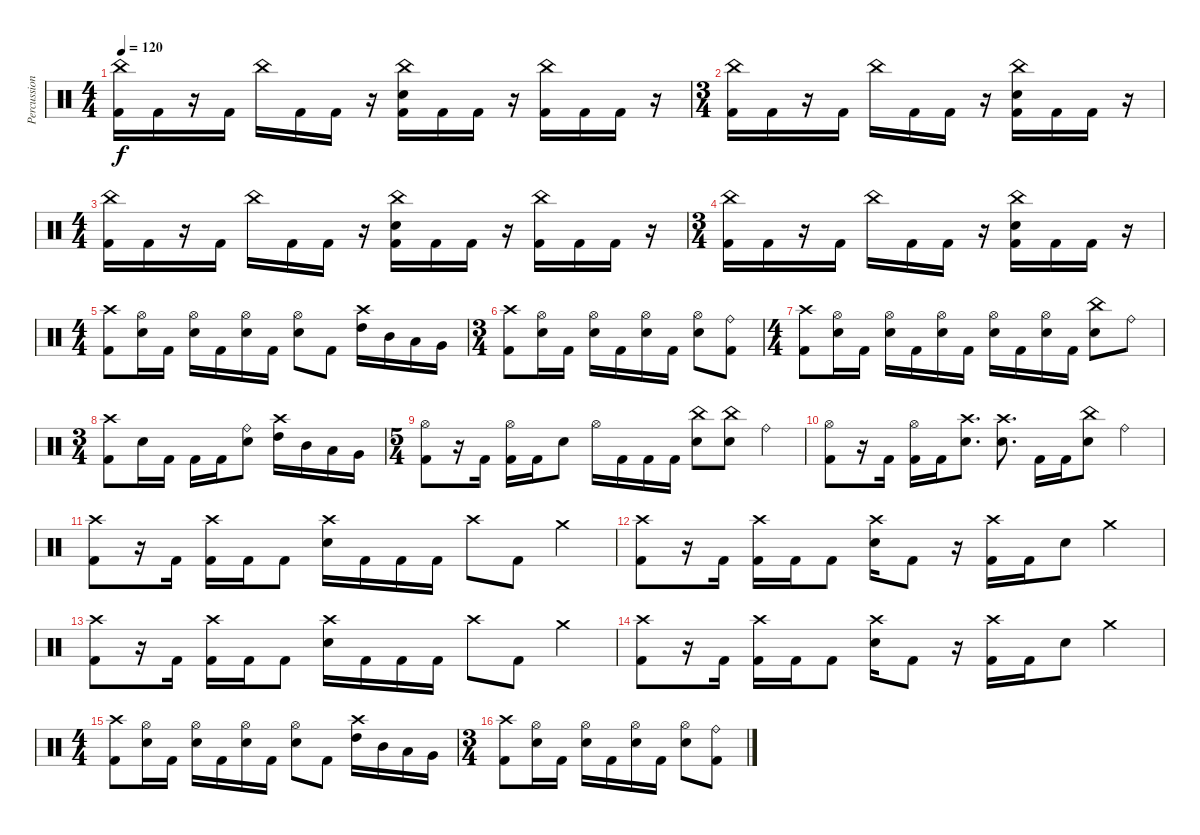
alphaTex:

\track ("Percussion" "Percussion") {instrument percussion}
\staff {score}
\articulation defaults
\ts (4 4)
\tempo 120
\clef neutral
\ks c
("China (hit)" "Kick (hit) 2").16{dy f} "Kick (hit) 2".16 r.16 "Kick (hit) 2".16 "China (hit)".16 "Kick (hit) 2".16 "Kick (hit) 2".16 r.16 ("China (hit)" "Electric Snare (hit)" "Kick (hit) 2").16 "Kick (hit) 2".16 "Kick (hit) 2".16 r.16 ("China (hit)" "Kick (hit) 2").16 "Kick (hit) 2".16 "Kick (hit) 2".16 r.16 |
\ts (3 4)
("China (hit)" "Kick (hit) 2").16 "Kick (hit) 2".16 r.16 "Kick (hit) 2".16 "China (hit)".16 "Kick (hit) 2".16 "Kick (hit) 2".16 r.16 ("China (hit)" "Electric Snare (hit)" "Kick (hit) 2").16 "Kick (hit) 2".16 "Kick (hit) 2".16 r.16 |
\ts (4 4)
("China (hit)" "Kick (hit) 2").16 "Kick (hit) 2".16 r.16 "Kick (hit) 2".16 "China (hit)".16 "Kick (hit) 2".16 "Kick (hit) 2".16 r.16 ("China (hit)" "Electric Snare (hit)" "Kick (hit) 2").16 "Kick (hit) 2".16 "Kick (hit) 2".16 r.16 ("China (hit)" "Kick (hit) 2").16 "Kick (hit) 2".16 "Kick (hit) 2".16 r.16 |
\ts (3 4)
("China (hit)" "Kick (hit) 2").16 "Kick (hit) 2".16 r.16 "Kick (hit) 2".16 "China (hit)".16 "Kick (hit) 2".16 "Kick (hit) 2".16 r.16 ("China (hit)" "Electric Snare (hit)" "Kick (hit) 2").16 "Kick (hit) 2".16 "Kick (hit) 2".16 r.16 |
\ts (4 4)
("Crash high (hit)" "Kick (hit) 2").8 ("Hi-Hat (open)" "Electric Snare (hit)").16 "Kick (hit) 2".16 ("Hi-Hat (open)" "Electric Snare (hit)").16 "Kick (hit) 2".16 ("Hi-Hat (open)" "Electric Snare (hit)").16 "Kick (hit) 2".16 ("Hi-Hat (open)" "Electric Snare (hit)").8 "Kick (hit) 2".8 ("Crash high (hit)" "High Tom (hit)").16 "Mid Tom (hit)".16 "Low Tom (hit)".16 "Very Low Tom (hit)".16 |
\ts (3 4)
("Crash high (hit)" "Kick (hit) 2").8 ("Hi-Hat (open)" "Electric Snare (hit)").16 "Kick (hit) 2".16 ("Hi-Hat (open)" "Electric Snare (hit)").16 "Kick (hit) 2".16 ("Hi-Hat (open)" "Electric Snare (hit)").16 "Kick (hit) 2".16 ("Hi-Hat (open)" "Electric Snare (hit)").8 ("Ride (bell)" "Kick (hit) 2").8 |
\ts (4 4)
("Crash high (hit)" "Kick (hit) 2").8 ("Hi-Hat (open)" "Electric Snare (hit)").16 "Kick (hit) 2".16 ("Hi-Hat (open)" "Electric Snare (hit)").16 "Kick (hit) 2".16 ("Hi-Hat (open)" "Electric Snare (hit)").16 "Kick (hit) 2".16 ("Hi-Hat (open)" "Electric Snare (hit)").16 "Kick (hit) 2".16 ("Hi-Hat (open)" "Electric Snare (hit)").16 "Kick (hit) 2".16 ("China (hit)" "Electric Snare (hit)").8 "Ride (bell)".8 |
\ts (3 4)
("Crash high (hit)" "Kick (hit) 2").8 "Electric Snare (hit)".16 "Kick (hit) 2".16 "Kick (hit) 2".16 "Kick (hit) 2".16 ("Ride (bell)" "Electric Snare (hit)").8 ("Crash high (hit)" "High Tom (hit)").16 "Mid Tom (hit)".16 "Low Tom (hit)".16 "Very Low Tom (hit)".16 |
\ts (5 4)
("Hi-Hat (open)" "Kick (hit) 2").8 r.16 "Kick (hit) 2".16 ("Hi-Hat (open)" "Kick (hit) 2").16 "Kick (hit) 2".16 "Electric Snare (hit)".8 "Hi-Hat (open)".16 "Kick (hit) 2".16 "Kick (hit) 2".16 "Kick (hit) 2".16 ("China (hit)" "Electric Snare (hit)").8 ("China (hit)" "Electric Snare (hit)").8 "Ride (bell)".4 |
("Hi-Hat (open)" "Kick (hit) 2").8 r.16 "Kick (hit) 2".16 ("Hi-Hat (open)" "Kick (hit) 2").16 "Kick (hit) 2".16 ("Crash high (hit)" "Electric Snare (hit)").8{d} ("Crash high (hit)" "Electric Snare (hit)").8{d} "Kick (hit) 2".16 "Kick (hit) 2".16 ("China (hit)" "Electric Snare (hit)").8 "Ride (bell)".4 |
("Crash high (hit)" "Kick (hit) 2").8 r.16 "Kick (hit) 2".16 ("Crash high (hit)" "Kick (hit) 2").16 "Kick (hit) 2".16 "Kick (hit) 2".8 ("Crash high (hit)" "Electric Snare (hit)").16 "Kick (hit) 2".16 "Kick (hit) 2".16 "Kick (hit) 2".16 "Crash high (hit)".8 "Kick (hit) 2".8 "Crash medium (hit)".4 |
("Crash high (hit)" "Kick (hit) 2").8 r.16 "Kick (hit) 2".16 ("Crash high (hit)" "Kick (hit) 2").16 "Kick (hit) 2".16 "Kick (hit) 2".8 ("Crash high (hit)" "Electric Snare (hit)").16 "Kick (hit) 2".8 r.16 ("Crash high (hit)" "Kick (hit) 2").16 "Kick (hit) 2".16 "Electric Snare (hit)".8 "Crash medium (hit)".4 |
("Crash high (hit)" "Kick (hit) 2").8 r.16 "Kick (hit) 2".16 ("Crash high (hit)" "Kick (hit) 2").16 "Kick (hit) 2".16 "Kick (hit) 2".8 ("Crash high (hit)" "Electric Snare (hit)").16 "Kick (hit) 2".16 "Kick (hit) 2".16 "Kick (hit) 2".16 "Crash high (hit)".8 "Kick (hit) 2".8 "Crash medium (hit)".4 |
("Crash high (hit)" "Kick (hit) 2").8 r.16 "Kick (hit) 2".16 ("Crash high (hit)" "Kick (hit) 2").16 "Kick (hit) 2".16 "Kick (hit) 2".8 ("Crash high (hit)" "Electric Snare (hit)").16 "Kick (hit) 2".8 r.16 ("Crash high (hit)" "Kick (hit) 2").16 "Kick (hit) 2".16 "Electric Snare (hit)".8 "Crash medium (hit)".4 |
\ts (4 4)
("Crash high (hit)" "Kick (hit) 2").8 ("Hi-Hat (open)" "Electric Snare (hit)").16 "Kick (hit) 2".16 ("Hi-Hat (open)" "Electric Snare (hit)").16 "Kick (hit) 2".16 ("Hi-Hat (open)" "Electric Snare (hit)").16 "Kick (hit) 2".16 ("Hi-Hat (open)" "Electric Snare (hit)").8 "Kick (hit) 2".8 ("Crash high (hit)" "High Tom (hit)").16 "Mid Tom (hit)".16 "Low Tom (hit)".16 "Very Low Tom (hit)".16 |
\ts (3 4)
("Crash high (hit)" "Kick (hit) 2").8 ("Hi-Hat (open)" "Electric Snare (hit)").16 "Kick (hit) 2".16 ("Hi-Hat (open)" "Electric Snare (hit)").16 "Kick (hit) 2".16 ("Hi-Hat (open)" "Electric Snare (hit)").16 "Kick (hit) 2".16 ("Hi-Hat (open)" "Electric Snare (hit)").8 ("Ride (bell)" "Kick (hit) 2").8
